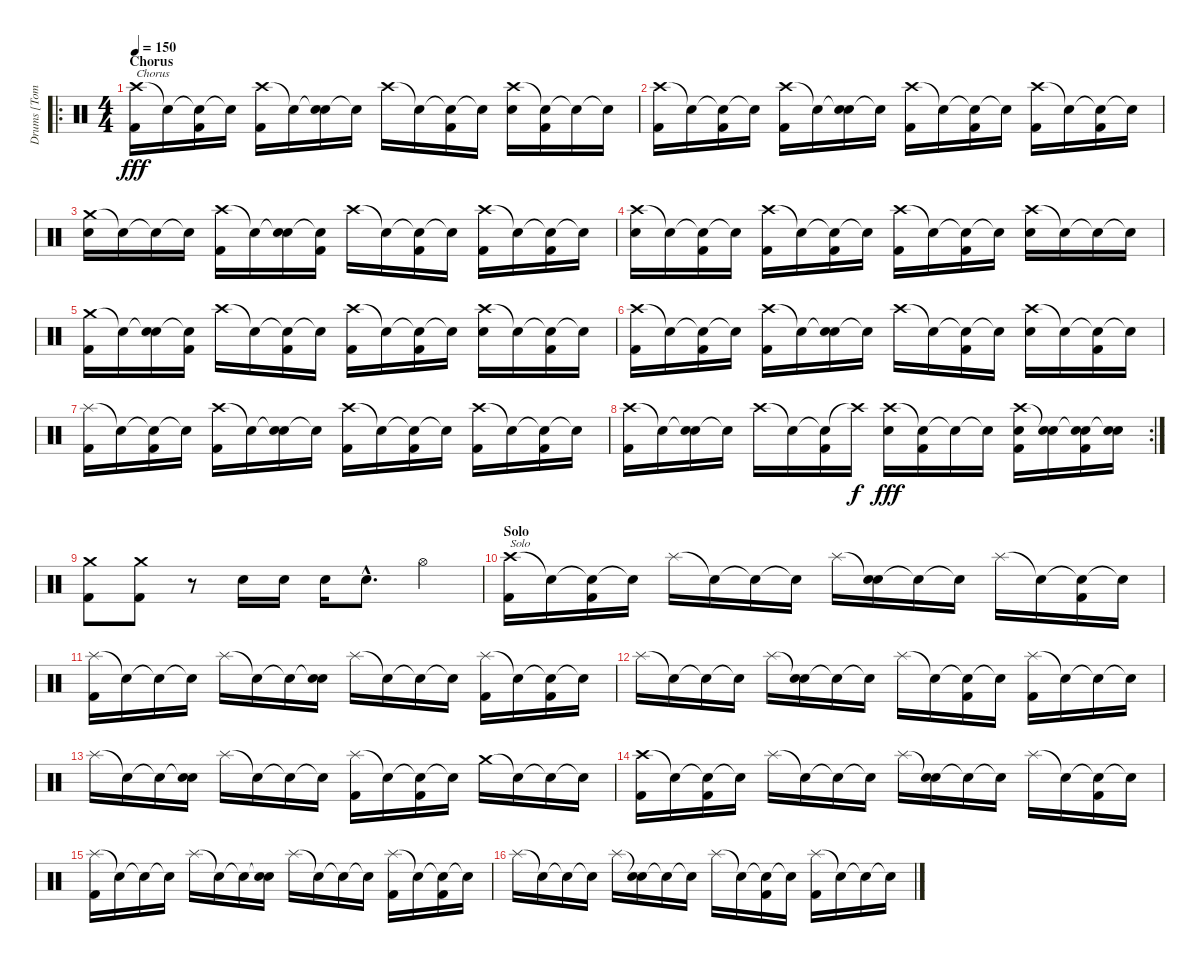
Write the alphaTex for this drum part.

\track ("Drums [Tomas Haake]" "Drums [Tom") {instrument percussion}
\staff {score}
\articulation defaults
\ro
\ts (4 4)
\section ("" "Chorus")
\tempo 150
\clef neutral
\ks c
("Crash high (hit)" "Kick (hit) 2").16{txt "Chorus" dy fff} "Snare (hit)"{t}.16 ("Snare (hit)"{t} "Kick (hit) 2").16 "Snare (hit)"{t}.16 ("Crash high (hit)" "Kick (hit) 2").16 "Snare (hit)"{t}.16 ("Snare (hit)"{t} "Electric Snare (hit)").16 "Snare (hit)"{t}.16 "Crash high (hit)".16 "Snare (hit)"{t}.16 ("Snare (hit)"{t} "Kick (hit) 2").16 "Snare (hit)"{t}.16 ("Crash high (hit)" "Electric Snare (hit)").16 ("Snare (hit)"{t} "Kick (hit) 2").16 "Snare (hit)"{t}.16 "Snare (hit)"{t}.16 |
("Crash high (hit)" "Kick (hit) 2").16 "Snare (hit)"{t}.16 ("Snare (hit)"{t} "Kick (hit) 2").16 "Snare (hit)"{t}.16 ("Crash high (hit)" "Kick (hit) 2").16 "Snare (hit)"{t}.16 ("Snare (hit)"{t} "Electric Snare (hit)").16 "Snare (hit)"{t}.16 ("Crash high (hit)" "Kick (hit) 2").16 "Snare (hit)"{t}.16 ("Snare (hit)"{t} "Kick (hit) 2").16 "Snare (hit)"{t}.16 ("Crash high (hit)" "Kick (hit) 2").16 "Snare (hit)"{t}.16 ("Snare (hit)"{t} "Kick (hit) 2").16 "Snare (hit)"{t}.16 |
("Crash medium (hit)" "Electric Snare (hit)").16 "Snare (hit)"{t}.16 "Snare (hit)"{t}.16 "Snare (hit)"{t}.16 ("Crash high (hit)" "Kick (hit) 2").16 "Snare (hit)"{t}.16 ("Snare (hit)"{t} "Electric Snare (hit)").16 ("Snare (hit)"{t} "Kick (hit) 2").16 "Crash high (hit)".16 "Snare (hit)"{t}.16 ("Snare (hit)"{t} "Kick (hit) 2").16 "Snare (hit)"{t}.16 ("Crash high (hit)" "Kick (hit) 2").16 "Snare (hit)"{t}.16 ("Snare (hit)"{t} "Kick (hit) 2").16 "Snare (hit)"{t}.16 |
("Crash high (hit)" "Electric Snare (hit)").16 "Snare (hit)"{t}.16 ("Snare (hit)"{t} "Kick (hit) 2").16 "Snare (hit)"{t}.16 ("Crash high (hit)" "Kick (hit) 2").16 "Snare (hit)"{t}.16 ("Snare (hit)"{t} "Kick (hit) 2").16 "Snare (hit)"{t}.16 ("Crash high (hit)" "Kick (hit) 2").16 "Snare (hit)"{t}.16 ("Snare (hit)"{t} "Kick (hit) 2").16 "Snare (hit)"{t}.16 ("Crash high (hit)" "Electric Snare (hit)").16 "Snare (hit)"{t}.16 "Snare (hit)"{t}.16 "Snare (hit)"{t}.16 |
("Crash medium (hit)" "Kick (hit) 2").16 "Snare (hit)"{t}.16 ("Snare (hit)"{t} "Electric Snare (hit)").16 ("Snare (hit)"{t} "Kick (hit) 2").16 "Crash high (hit)".16 "Snare (hit)"{t}.16 ("Snare (hit)"{t} "Kick (hit) 2").16 "Snare (hit)"{t}.16 ("Crash high (hit)" "Kick (hit) 2").16 "Snare (hit)"{t}.16 ("Snare (hit)"{t} "Kick (hit) 2").16 "Snare (hit)"{t}.16 ("Crash high (hit)" "Electric Snare (hit)").16 "Snare (hit)"{t}.16 ("Snare (hit)"{t} "Kick (hit) 2").16 "Snare (hit)"{t}.16 |
("Crash high (hit)" "Kick (hit) 2").16 "Snare (hit)"{t}.16 ("Snare (hit)"{t} "Kick (hit) 2").16 "Snare (hit)"{t}.16 ("Crash high (hit)" "Kick (hit) 2").16 "Snare (hit)"{t}.16 ("Snare (hit)"{t} "Electric Snare (hit)").16 "Snare (hit)"{t}.16 "Crash high (hit)".16 "Snare (hit)"{t}.16 ("Snare (hit)"{t} "Kick (hit) 2").16 "Snare (hit)"{t}.16 ("Crash high (hit)" "Electric Snare (hit)").16 "Snare (hit)"{t}.16 ("Snare (hit)"{t} "Kick (hit) 2").16 "Snare (hit)"{t}.16 |
("Splash (hit)" "Kick (hit) 2").16 "Snare (hit)"{t}.16 ("Snare (hit)"{t} "Kick (hit) 2").16 "Snare (hit)"{t}.16 ("Crash high (hit)" "Kick (hit) 2").16 "Snare (hit)"{t}.16 ("Snare (hit)"{t} "Electric Snare (hit)").16 "Snare (hit)"{t}.16 ("Crash high (hit)" "Kick (hit) 2").16 "Snare (hit)"{t}.16 ("Snare (hit)"{t} "Kick (hit) 2").16 "Snare (hit)"{t}.16 ("Crash high (hit)" "Kick (hit) 2").16 "Snare (hit)"{t}.16 ("Snare (hit)"{t} "Kick (hit) 2").16 "Snare (hit)"{t}.16 |
\rc 2
("Crash high (hit)" "Kick (hit) 2").16 "Snare (hit)"{t}.16 ("Snare (hit)"{t} "Electric Snare (hit)").16 "Snare (hit)"{t}.16 "Crash high (hit)".16 "Snare (hit)"{t}.16 ("Snare (hit)"{t} "Kick (hit) 2").16 "Crash high (hit)"{t}.16{dy f} ("Crash high (hit)" "Electric Snare (hit)").16{dy fff} ("Snare (hit)"{t} "Kick (hit) 2").16 "Snare (hit)"{t}.16 "Snare (hit)"{t}.16 ("Crash high (hit)" "Electric Snare (hit)" "Kick (hit) 2").16 ("Snare (hit)"{t} "Electric Snare (hit)").16 ("Snare (hit)"{t} "Electric Snare (hit)" "Kick (hit) 2").16 ("Snare (hit)"{t} "Electric Snare (hit)").16 |
("Crash medium (hit)" "Kick (hit) 2").8 ("Crash medium (hit)" "Kick (hit) 2").8 r.8 "Electric Snare (hit)".16 "Electric Snare (hit)".16 "Electric Snare (hit)".16 "Electric Snare (hit)"{hac}.8{d} "Hi-Hat (open)".4 |
\section ("" "Solo")
("Crash high (hit)" "Kick (hit) 2").16{txt "Solo"} "Snare (hit)"{t}.16 ("Snare (hit)"{t} "Kick (hit) 2").16 "Snare (hit)"{t}.16 "Splash (hit)".16 "Snare (hit)"{t}.16 "Snare (hit)"{t}.16 "Snare (hit)"{t}.16 "Splash (hit)".16 ("Snare (hit)"{t} "Electric Snare (hit)").16 "Snare (hit)"{t}.16 "Snare (hit)"{t}.16 "Splash (hit)".16 "Snare (hit)"{t}.16 ("Snare (hit)"{t} "Kick (hit) 2").16 "Snare (hit)"{t}.16 |
("Splash (hit)" "Kick (hit) 2").16 "Snare (hit)"{t}.16 "Snare (hit)"{t}.16 "Snare (hit)"{t}.16 "Splash (hit)".16 "Snare (hit)"{t}.16 "Snare (hit)"{t}.16 ("Snare (hit)"{t} "Electric Snare (hit)").16 "Splash (hit)".16 "Snare (hit)"{t}.16 "Snare (hit)"{t}.16 "Snare (hit)"{t}.16 ("Splash (hit)" "Kick (hit) 2").16 "Snare (hit)"{t}.16 ("Snare (hit)"{t} "Kick (hit) 2").16 "Snare (hit)"{t}.16 |
"Splash (hit)".16 "Snare (hit)"{t}.16 "Snare (hit)"{t}.16 "Snare (hit)"{t}.16 "Splash (hit)".16 ("Snare (hit)"{t} "Electric Snare (hit)").16 "Snare (hit)"{t}.16 "Snare (hit)"{t}.16 "Splash (hit)".16 "Snare (hit)"{t}.16 ("Snare (hit)"{t} "Kick (hit) 2").16 "Snare (hit)"{t}.16 ("Splash (hit)" "Kick (hit) 2").16 "Snare (hit)"{t}.16 "Snare (hit)"{t}.16 "Snare (hit)"{t}.16 |
"Splash (hit)".16 "Snare (hit)"{t}.16 "Snare (hit)"{t}.16 ("Snare (hit)"{t} "Electric Snare (hit)").16 "Splash (hit)".16 "Snare (hit)"{t}.16 "Snare (hit)"{t}.16 "Snare (hit)"{t}.16 ("Splash (hit)" "Kick (hit) 2").16 "Snare (hit)"{t}.16 ("Snare (hit)"{t} "Kick (hit) 2").16 "Snare (hit)"{t}.16 "Crash medium (hit)".16 "Snare (hit)"{t}.16 "Snare (hit)"{t}.16 "Snare (hit)"{t}.16 |
("Crash high (hit)" "Kick (hit) 2").16 "Snare (hit)"{t}.16 ("Snare (hit)"{t} "Kick (hit) 2").16 "Snare (hit)"{t}.16 "Splash (hit)".16 "Snare (hit)"{t}.16 "Snare (hit)"{t}.16 "Snare (hit)"{t}.16 "Splash (hit)".16 ("Snare (hit)"{t} "Electric Snare (hit)").16 "Snare (hit)"{t}.16 "Snare (hit)"{t}.16 "Splash (hit)".16 "Snare (hit)"{t}.16 ("Snare (hit)"{t} "Kick (hit) 2").16 "Snare (hit)"{t}.16 |
("Splash (hit)" "Kick (hit) 2").16 "Snare (hit)"{t}.16 "Snare (hit)"{t}.16 "Snare (hit)"{t}.16 "Splash (hit)".16 "Snare (hit)"{t}.16 "Snare (hit)"{t}.16 ("Snare (hit)"{t} "Electric Snare (hit)").16 "Splash (hit)".16 "Snare (hit)"{t}.16 "Snare (hit)"{t}.16 "Snare (hit)"{t}.16 ("Splash (hit)" "Kick (hit) 2").16 "Snare (hit)"{t}.16 ("Snare (hit)"{t} "Kick (hit) 2").16 "Snare (hit)"{t}.16 |
"Splash (hit)".16 "Snare (hit)"{t}.16 "Snare (hit)"{t}.16 "Snare (hit)"{t}.16 "Splash (hit)".16 ("Snare (hit)"{t} "Electric Snare (hit)").16 "Snare (hit)"{t}.16 "Snare (hit)"{t}.16 "Splash (hit)".16 "Snare (hit)"{t}.16 ("Snare (hit)"{t} "Kick (hit) 2").16 "Snare (hit)"{t}.16 ("Splash (hit)" "Kick (hit) 2").16 "Snare (hit)"{t}.16 "Snare (hit)"{t}.16 "Snare (hit)"{t}.16
